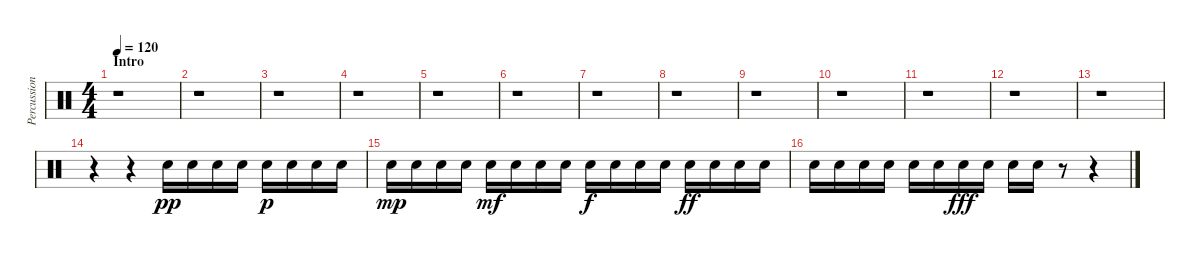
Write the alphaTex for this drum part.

\track ("Percussion" "Percussion") {instrument percussion}
\staff {score}
\articulation defaults
\ts (4 4)
\section ("" "Intro")
\tempo 120
\clef neutral
\ks c
r.1{dy pp} |
r.1 |
r.1 |
r.1 |
r.1 |
r.1 |
r.1 |
r.1 |
r.1 |
r.1 |
r.1 |
r.1 |
r.1 |
r.4 r.4 "Electric Snare (hit)".16 "Electric Snare (hit)".16 "Electric Snare (hit)".16 "Electric Snare (hit)".16 "Electric Snare (hit)".16{dy p} "Electric Snare (hit)".16 "Electric Snare (hit)".16 "Electric Snare (hit)".16 |
"Electric Snare (hit)".16{dy mp} "Electric Snare (hit)".16 "Electric Snare (hit)".16 "Electric Snare (hit)".16 "Electric Snare (hit)".16{dy mf} "Electric Snare (hit)".16 "Electric Snare (hit)".16 "Electric Snare (hit)".16 "Electric Snare (hit)".16{dy f} "Electric Snare (hit)".16 "Electric Snare (hit)".16 "Electric Snare (hit)".16 "Electric Snare (hit)".16{dy ff} "Electric Snare (hit)".16 "Electric Snare (hit)".16 "Electric Snare (hit)".16 |
"Electric Snare (hit)".16 "Electric Snare (hit)".16 "Electric Snare (hit)".16 "Electric Snare (hit)".16 "Electric Snare (hit)".16 "Electric Snare (hit)".16 "Electric Snare (hit)".16{dy fff} "Electric Snare (hit)".16 "Electric Snare (hit)".16 "Electric Snare (hit)".16 r.8 r.4
